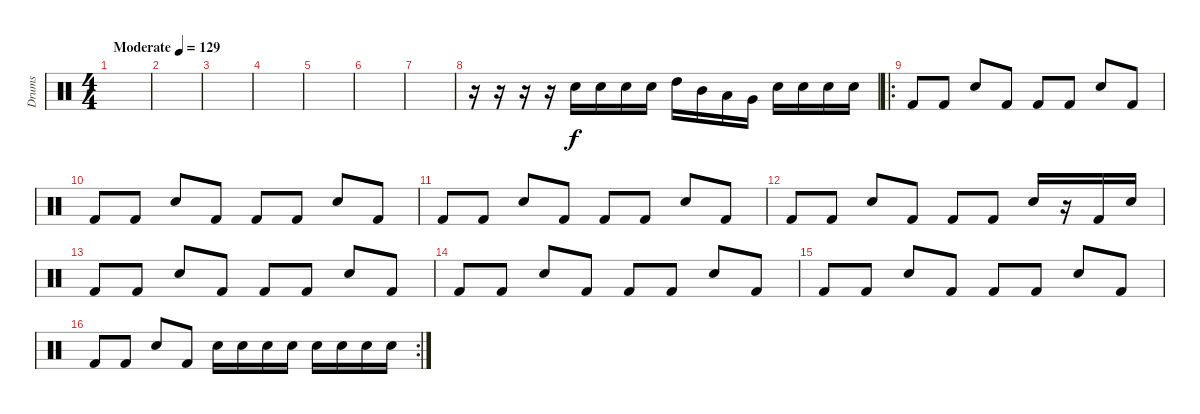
\track ("Drums" "Drums") {instrument percussion}
\staff {score}
\articulation defaults
\ts (4 4)
\tempo (129 "Moderate")
\clef neutral
\ks c
|
|
|
|
|
|
|
r.16 r.16 r.16 r.16 "Snare (hit) 2".16 "Snare (hit) 2".16 "Snare (hit) 2".16 "Snare (hit) 2".16 "High Tom (hit)".16 "Mid Tom (hit)".16 "Low Tom (hit)".16 "Very Low Tom (hit)".16 "Snare (hit) 2".16 "Snare (hit) 2".16 "Snare (hit) 2".16 "Snare (hit) 2".16 |
\ro "Kick (hit) 2".8 "Kick (hit) 2".8 "Snare (hit) 2".8 "Kick (hit) 2".8 "Kick (hit) 2".8 "Kick (hit) 2".8 "Snare (hit) 2".8 "Kick (hit) 2".8
|
"Kick (hit) 2".8 "Kick (hit) 2".8 "Snare (hit) 2".8 "Kick (hit) 2".8 "Kick (hit) 2".8 "Kick (hit) 2".8 "Snare (hit) 2".8 "Kick (hit) 2".8 |
"Kick (hit) 2".8 "Kick (hit) 2".8 "Snare (hit) 2".8 "Kick (hit) 2".8 "Kick (hit) 2".8 "Kick (hit) 2".8 "Snare (hit) 2".8 "Kick (hit) 2".8 |
"Kick (hit) 2".8 "Kick (hit) 2".8 "Snare (hit) 2".8 "Kick (hit) 2".8 "Kick (hit) 2".8 "Kick (hit) 2".8 "Snare (hit) 2".16 r.16 "Kick (hit) 2".16 "Snare (hit) 2".16 |
"Kick (hit) 2".8 "Kick (hit) 2".8 "Snare (hit) 2".8 "Kick (hit) 2".8 "Kick (hit) 2".8 "Kick (hit) 2".8 "Snare (hit) 2".8 "Kick (hit) 2".8 |
"Kick (hit) 2".8 "Kick (hit) 2".8 "Snare (hit) 2".8 "Kick (hit) 2".8 "Kick (hit) 2".8 "Kick (hit) 2".8 "Snare (hit) 2".8 "Kick (hit) 2".8 |
"Kick (hit) 2".8 "Kick (hit) 2".8 "Snare (hit) 2".8 "Kick (hit) 2".8 "Kick (hit) 2".8 "Kick (hit) 2".8 "Snare (hit) 2".8 "Kick (hit) 2".8 |
\rc 2 "Kick (hit) 2".8 "Kick (hit) 2".8 "Snare (hit) 2".8 "Kick (hit) 2".8 "Snare (hit) 2".16 "Snare (hit) 2".16 "Snare (hit) 2".16 "Snare (hit) 2".16 "Snare (hit) 2".16 "Snare (hit) 2".16 "Snare (hit) 2".16 "Snare (hit) 2".16
